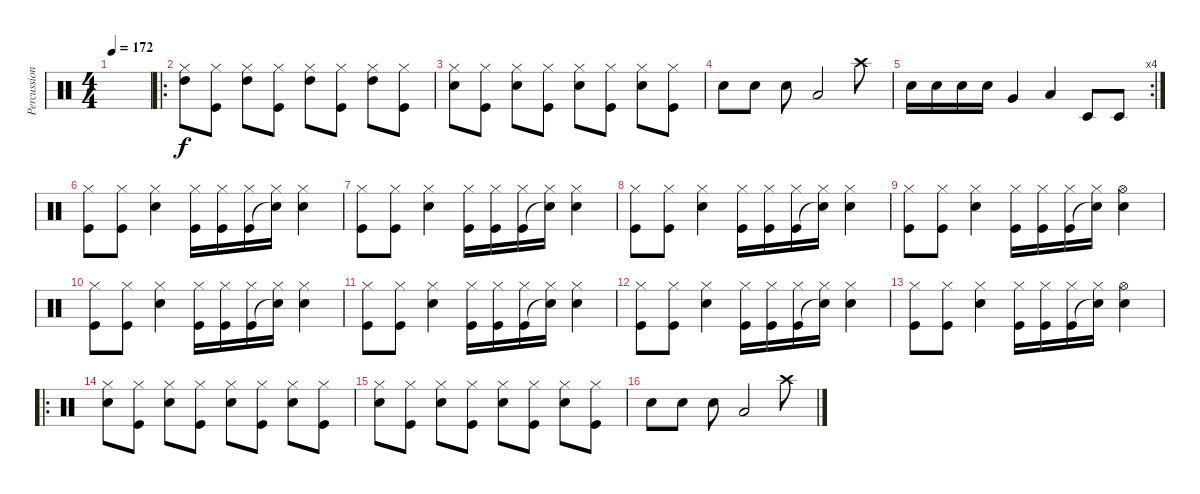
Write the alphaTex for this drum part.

\track ("Percussion" "Percussion") {instrument percussion}
\staff {score}
\articulation defaults
\ts (4 4)
\tempo 172
\clef neutral
\ks c
|
\ro
("Hi-Hat (closed)" "High Tom (hit)").8 ("Hi-Hat (closed)" "Kick (hit)").8 ("Hi-Hat (closed)" "High Tom (hit)").8 ("Hi-Hat (closed)" "Kick (hit)").8 ("Hi-Hat (closed)" "High Tom (hit)").8 ("Hi-Hat (closed)" "Kick (hit)").8 ("Hi-Hat (closed)" "High Tom (hit)").8 ("Hi-Hat (closed)" "Kick (hit)").8 |
("Hi-Hat (closed)" "Snare (hit) 2").8 ("Hi-Hat (closed)" "Kick (hit)").8 ("Hi-Hat (closed)" "Snare (hit) 2").8 ("Hi-Hat (closed)" "Kick (hit)").8 ("Hi-Hat (closed)" "Snare (hit) 2").8 ("Hi-Hat (closed)" "Kick (hit)").8 ("Hi-Hat (closed)" "Snare (hit) 2").8 ("Hi-Hat (closed)" "Kick (hit)").8 |
"Snare (hit) 2".8 "Snare (hit) 2".8 "Snare (hit) 2".8 "Low Tom (hit)".2 "Crash high (hit)".8 |
\rc 4 "Snare (hit) 2".16 "Snare (hit) 2".16 "Snare (hit) 2".16 "Snare (hit) 2".16 "Very Low Tom (hit)".4 "Low Tom (hit)".4 "Timbale low (hit)".8 "Timbale low (hit)".8
|
("Hi-Hat (closed)" "Kick (hit)").8 ("Hi-Hat (closed)" "Kick (hit)").8 ("Hi-Hat (closed)" "Snare (hit) 2").4 ("Hi-Hat (closed)" "Kick (hit)").16 ("Hi-Hat (closed)" "Kick (hit)").16 ("Hi-Hat (closed)" "Kick (hit)").16 ("Hi-Hat (closed)" "Snare (hit)"{t}).16 ("Hi-Hat (closed)" "Snare (hit) 2").4 |
("Hi-Hat (closed)" "Kick (hit)").8 ("Hi-Hat (closed)" "Kick (hit)").8 ("Hi-Hat (closed)" "Snare (hit) 2").4 ("Hi-Hat (closed)" "Kick (hit)").16 ("Hi-Hat (closed)" "Kick (hit)").16 ("Hi-Hat (closed)" "Kick (hit)").16 ("Hi-Hat (closed)" "Snare (hit)"{t}).16 ("Hi-Hat (closed)" "Snare (hit) 2").4 |
("Hi-Hat (closed)" "Kick (hit)").8 ("Hi-Hat (closed)" "Kick (hit)").8 ("Hi-Hat (closed)" "Snare (hit) 2").4 ("Hi-Hat (closed)" "Kick (hit)").16 ("Hi-Hat (closed)" "Kick (hit)").16 ("Hi-Hat (closed)" "Kick (hit)").16 ("Hi-Hat (closed)" "Snare (hit)"{t}).16 ("Hi-Hat (closed)" "Snare (hit) 2").4 |
("Hi-Hat (closed)" "Kick (hit)").8 ("Hi-Hat (closed)" "Kick (hit)").8 ("Hi-Hat (closed)" "Snare (hit) 2").4 ("Hi-Hat (closed)" "Kick (hit)").16 ("Hi-Hat (closed)" "Kick (hit)").16 ("Hi-Hat (closed)" "Kick (hit)").16 ("Hi-Hat (closed)" "Snare (hit)"{t}).16 ("Hi-Hat (open)" "Snare (hit) 2").4 |
("Hi-Hat (closed)" "Kick (hit)").8 ("Hi-Hat (closed)" "Kick (hit)").8 ("Hi-Hat (closed)" "Snare (hit) 2").4 ("Hi-Hat (closed)" "Kick (hit)").16 ("Hi-Hat (closed)" "Kick (hit)").16 ("Hi-Hat (closed)" "Kick (hit)").16 ("Hi-Hat (closed)" "Snare (hit)"{t}).16 ("Hi-Hat (closed)" "Snare (hit) 2").4 |
("Hi-Hat (closed)" "Kick (hit)").8 ("Hi-Hat (closed)" "Kick (hit)").8 ("Hi-Hat (closed)" "Snare (hit) 2").4 ("Hi-Hat (closed)" "Kick (hit)").16 ("Hi-Hat (closed)" "Kick (hit)").16 ("Hi-Hat (closed)" "Kick (hit)").16 ("Hi-Hat (closed)" "Snare (hit)"{t}).16 ("Hi-Hat (closed)" "Snare (hit) 2").4 |
("Hi-Hat (closed)" "Kick (hit)").8 ("Hi-Hat (closed)" "Kick (hit)").8 ("Hi-Hat (closed)" "Snare (hit) 2").4 ("Hi-Hat (closed)" "Kick (hit)").16 ("Hi-Hat (closed)" "Kick (hit)").16 ("Hi-Hat (closed)" "Kick (hit)").16 ("Hi-Hat (closed)" "Snare (hit)"{t}).16 ("Hi-Hat (closed)" "Snare (hit) 2").4 |
("Hi-Hat (closed)" "Kick (hit)").8 ("Hi-Hat (closed)" "Kick (hit)").8 ("Hi-Hat (closed)" "Snare (hit) 2").4 ("Hi-Hat (closed)" "Kick (hit)").16 ("Hi-Hat (closed)" "Kick (hit)").16 ("Hi-Hat (closed)" "Kick (hit)").16 ("Hi-Hat (closed)" "Snare (hit)"{t}).16 ("Hi-Hat (open)" "Snare (hit) 2").4 |
\ro
("Hi-Hat (closed)" "Snare (hit) 2").8 ("Hi-Hat (closed)" "Kick (hit)").8 ("Hi-Hat (closed)" "Snare (hit) 2").8 ("Hi-Hat (closed)" "Kick (hit)").8 ("Hi-Hat (closed)" "Snare (hit) 2").8 ("Hi-Hat (closed)" "Kick (hit)").8 ("Hi-Hat (closed)" "Snare (hit) 2").8 ("Hi-Hat (closed)" "Kick (hit)").8 |
("Hi-Hat (closed)" "Snare (hit) 2").8 ("Hi-Hat (closed)" "Kick (hit)").8 ("Hi-Hat (closed)" "Snare (hit) 2").8 ("Hi-Hat (closed)" "Kick (hit)").8 ("Hi-Hat (closed)" "Snare (hit) 2").8 ("Hi-Hat (closed)" "Kick (hit)").8 ("Hi-Hat (closed)" "Snare (hit) 2").8 ("Hi-Hat (closed)" "Kick (hit)").8 |
"Snare (hit) 2".8 "Snare (hit) 2".8 "Snare (hit) 2".8 "Low Tom (hit)".2 "Crash high (hit)".8
